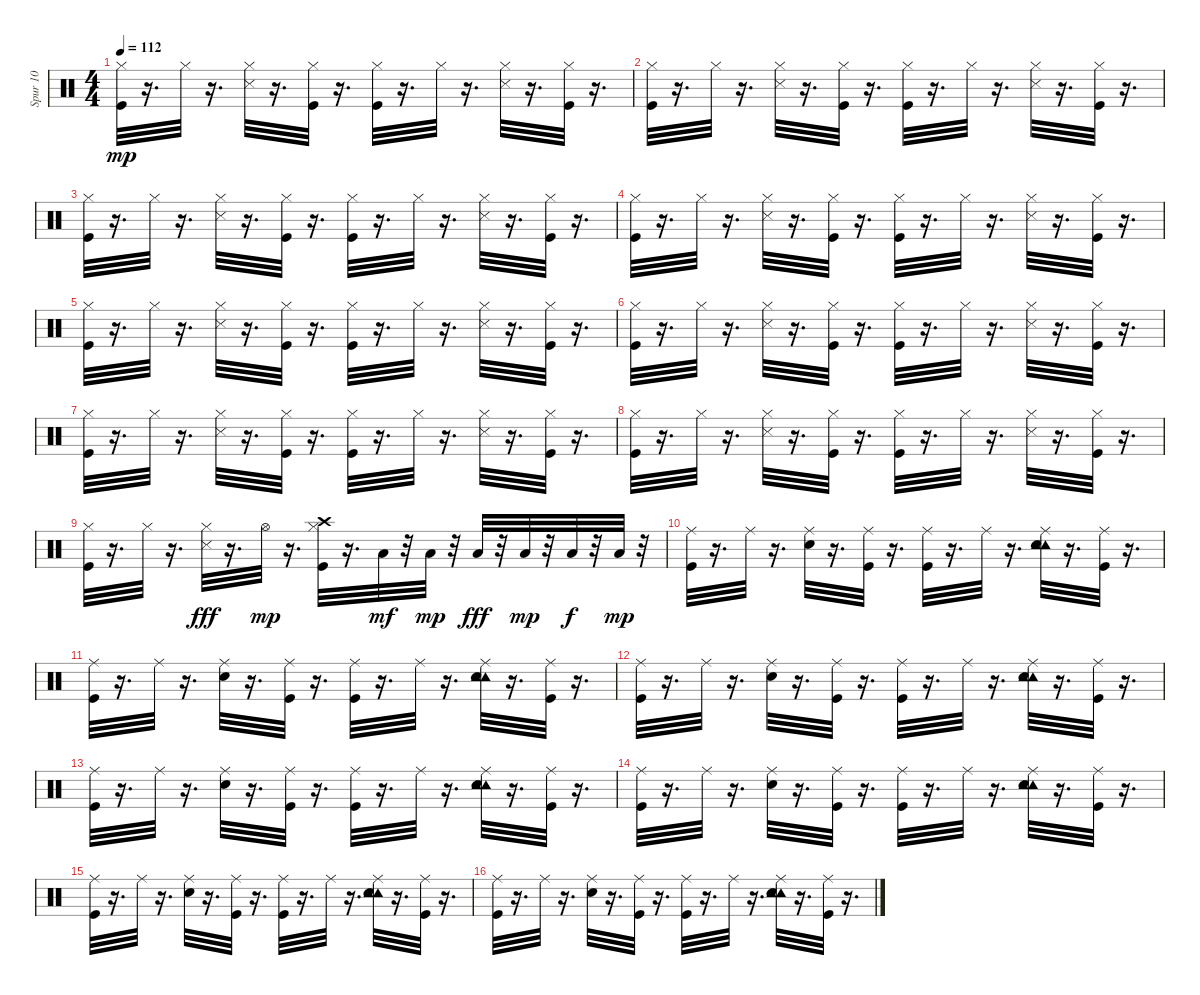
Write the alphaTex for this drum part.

\track ("Spur 10" "Spur 10") {instrument percussion}
\staff {score}
\articulation defaults
\ts (4 4)
\tempo 112
\clef neutral
\ks c
("Kick (hit)" "Hi-Hat (closed)").32{dy mp} r.16{d} "Hi-Hat (closed)".32 r.16{d} ("Snare (side stick) 3" "Hi-Hat (closed)").32 r.16{d} ("Kick (hit)" "Hi-Hat (closed)").32 r.16{d} ("Kick (hit)" "Hi-Hat (closed)").32 r.16{d} "Hi-Hat (closed)".32 r.16{d} ("Snare (side stick) 3" "Hi-Hat (closed)").32 r.16{d} ("Kick (hit)" "Hi-Hat (closed)").32 r.16{d} |
("Kick (hit)" "Hi-Hat (closed)").32 r.16{d} "Hi-Hat (closed)".32 r.16{d} ("Snare (side stick) 3" "Hi-Hat (closed)").32 r.16{d} ("Kick (hit)" "Hi-Hat (closed)").32 r.16{d} ("Kick (hit)" "Hi-Hat (closed)").32 r.16{d} "Hi-Hat (closed)".32 r.16{d} ("Snare (side stick) 3" "Hi-Hat (closed)").32 r.16{d} ("Kick (hit)" "Hi-Hat (closed)").32 r.16{d} |
("Kick (hit)" "Hi-Hat (closed)").32 r.16{d} "Hi-Hat (closed)".32 r.16{d} ("Snare (side stick) 3" "Hi-Hat (closed)").32 r.16{d} ("Kick (hit)" "Hi-Hat (closed)").32 r.16{d} ("Kick (hit)" "Hi-Hat (closed)").32 r.16{d} "Hi-Hat (closed)".32 r.16{d} ("Snare (side stick) 3" "Hi-Hat (closed)").32 r.16{d} ("Kick (hit)" "Hi-Hat (closed)").32 r.16{d} |
("Kick (hit)" "Hi-Hat (closed)").32 r.16{d} "Hi-Hat (closed)".32 r.16{d} ("Snare (side stick) 3" "Hi-Hat (closed)").32 r.16{d} ("Kick (hit)" "Hi-Hat (closed)").32 r.16{d} ("Kick (hit)" "Hi-Hat (closed)").32 r.16{d} "Hi-Hat (closed)".32 r.16{d} ("Snare (side stick) 3" "Hi-Hat (closed)").32 r.16{d} ("Kick (hit)" "Hi-Hat (closed)").32 r.16{d} |
("Kick (hit)" "Hi-Hat (closed)").32 r.16{d} "Hi-Hat (closed)".32 r.16{d} ("Snare (side stick) 3" "Hi-Hat (closed)").32 r.16{d} ("Kick (hit)" "Hi-Hat (closed)").32 r.16{d} ("Kick (hit)" "Hi-Hat (closed)").32 r.16{d} "Hi-Hat (closed)".32 r.16{d} ("Snare (side stick) 3" "Hi-Hat (closed)").32 r.16{d} ("Kick (hit)" "Hi-Hat (closed)").32 r.16{d} |
("Kick (hit)" "Hi-Hat (closed)").32 r.16{d} "Hi-Hat (closed)".32 r.16{d} ("Snare (side stick) 3" "Hi-Hat (closed)").32 r.16{d} ("Kick (hit)" "Hi-Hat (closed)").32 r.16{d} ("Kick (hit)" "Hi-Hat (closed)").32 r.16{d} "Hi-Hat (closed)".32 r.16{d} ("Snare (side stick) 3" "Hi-Hat (closed)").32 r.16{d} ("Kick (hit)" "Hi-Hat (closed)").32 r.16{d} |
("Kick (hit)" "Hi-Hat (closed)").32 r.16{d} "Hi-Hat (closed)".32 r.16{d} ("Snare (side stick) 3" "Hi-Hat (closed)").32 r.16{d} ("Kick (hit)" "Hi-Hat (closed)").32 r.16{d} ("Kick (hit)" "Hi-Hat (closed)").32 r.16{d} "Hi-Hat (closed)".32 r.16{d} ("Snare (side stick) 3" "Hi-Hat (closed)").32 r.16{d} ("Kick (hit)" "Hi-Hat (closed)").32 r.16{d} |
("Kick (hit)" "Hi-Hat (closed)").32 r.16{d} "Hi-Hat (closed)".32 r.16{d} ("Snare (side stick) 3" "Hi-Hat (closed)").32 r.16{d} ("Kick (hit)" "Hi-Hat (closed)").32 r.16{d} ("Kick (hit)" "Hi-Hat (closed)").32 r.16{d} "Hi-Hat (closed)".32 r.16{d} ("Snare (side stick) 3" "Hi-Hat (closed)").32 r.16{d} ("Kick (hit)" "Hi-Hat (closed)").32 r.16{d} |
("Kick (hit)" "Hi-Hat (closed)").32 r.16{d} "Hi-Hat (closed)".32 r.16{d} ("Hi-Hat (closed)" "Snare (side stick) 3").32{dy fff} r.16{d} "Hi-Hat (open)".32{dy mp} r.16{d} ("Crash high (hit)" "Kick (hit)" "Hi-Hat (closed)").32 r.16{d} "Low Tom (hit)".32{dy mf} r.32 "Low Tom (hit)".32{dy mp} r.32 "Low Floor Tom (hit)".32{dy fff} r.32 "Low Floor Tom (hit)".32{dy mp} r.32 "Low Floor Tom (hit)".32{dy f} r.32 "Low Floor Tom (hit)".32{dy mp} r.32 |
("Kick (hit)" "Ride (middle)").32 r.16{d} "Ride (middle)".32 r.16{d} ("Snare (hit) 2" "Ride (middle)").32 r.16{d} ("Kick (hit)" "Ride (middle)").32 r.16{d} ("Kick (hit)" "Ride (middle)").32 r.16{d} "Ride (middle)".32 r.16{d} ("Tambourine (hit)" "Snare (hit) 2" "Tambourine (hit)" "Ride (middle)").32 r.16{d} ("Kick (hit)" "Ride (middle)").32 r.16{d} |
("Kick (hit)" "Ride (middle)").32 r.16{d} "Ride (middle)".32 r.16{d} ("Snare (hit) 2" "Ride (middle)").32 r.16{d} ("Kick (hit)" "Ride (middle)").32 r.16{d} ("Kick (hit)" "Ride (middle)").32 r.16{d} "Ride (middle)".32 r.16{d} ("Tambourine (hit)" "Snare (hit) 2" "Tambourine (hit)" "Ride (middle)").32 r.16{d} ("Kick (hit)" "Ride (middle)").32 r.16{d} |
("Kick (hit)" "Ride (middle)").32 r.16{d} "Ride (middle)".32 r.16{d} ("Snare (hit) 2" "Ride (middle)").32 r.16{d} ("Kick (hit)" "Ride (middle)").32 r.16{d} ("Kick (hit)" "Ride (middle)").32 r.16{d} "Ride (middle)".32 r.16{d} ("Tambourine (hit)" "Snare (hit) 2" "Tambourine (hit)" "Ride (middle)").32 r.16{d} ("Kick (hit)" "Ride (middle)").32 r.16{d} |
("Kick (hit)" "Ride (middle)").32 r.16{d} "Ride (middle)".32 r.16{d} ("Snare (hit) 2" "Ride (middle)").32 r.16{d} ("Kick (hit)" "Ride (middle)").32 r.16{d} ("Kick (hit)" "Ride (middle)").32 r.16{d} "Ride (middle)".32 r.16{d} ("Tambourine (hit)" "Snare (hit) 2" "Tambourine (hit)" "Ride (middle)").32 r.16{d} ("Kick (hit)" "Ride (middle)").32 r.16{d} |
("Kick (hit)" "Ride (middle)").32 r.16{d} "Ride (middle)".32 r.16{d} ("Snare (hit) 2" "Ride (middle)").32 r.16{d} ("Kick (hit)" "Ride (middle)").32 r.16{d} ("Kick (hit)" "Ride (middle)").32 r.16{d} "Ride (middle)".32 r.16{d} ("Tambourine (hit)" "Snare (hit) 2" "Tambourine (hit)" "Ride (middle)").32 r.16{d} ("Kick (hit)" "Ride (middle)").32 r.16{d} |
("Kick (hit)" "Ride (middle)").32 r.16{d} "Ride (middle)".32 r.16{d} ("Snare (hit) 2" "Ride (middle)").32 r.16{d} ("Kick (hit)" "Ride (middle)").32 r.16{d} ("Kick (hit)" "Ride (middle)").32 r.16{d} "Ride (middle)".32 r.16{d} ("Tambourine (hit)" "Snare (hit) 2" "Tambourine (hit)" "Ride (middle)").32 r.16{d} ("Kick (hit)" "Ride (middle)").32 r.16{d} |
("Kick (hit)" "Ride (middle)").32 r.16{d} "Ride (middle)".32 r.16{d} ("Snare (hit) 2" "Ride (middle)").32 r.16{d} ("Kick (hit)" "Ride (middle)").32 r.16{d} ("Kick (hit)" "Ride (middle)").32 r.16{d} "Ride (middle)".32 r.16{d} ("Tambourine (hit)" "Snare (hit) 2" "Tambourine (hit)" "Ride (middle)").32 r.16{d} ("Kick (hit)" "Ride (middle)").32 r.16{d}
